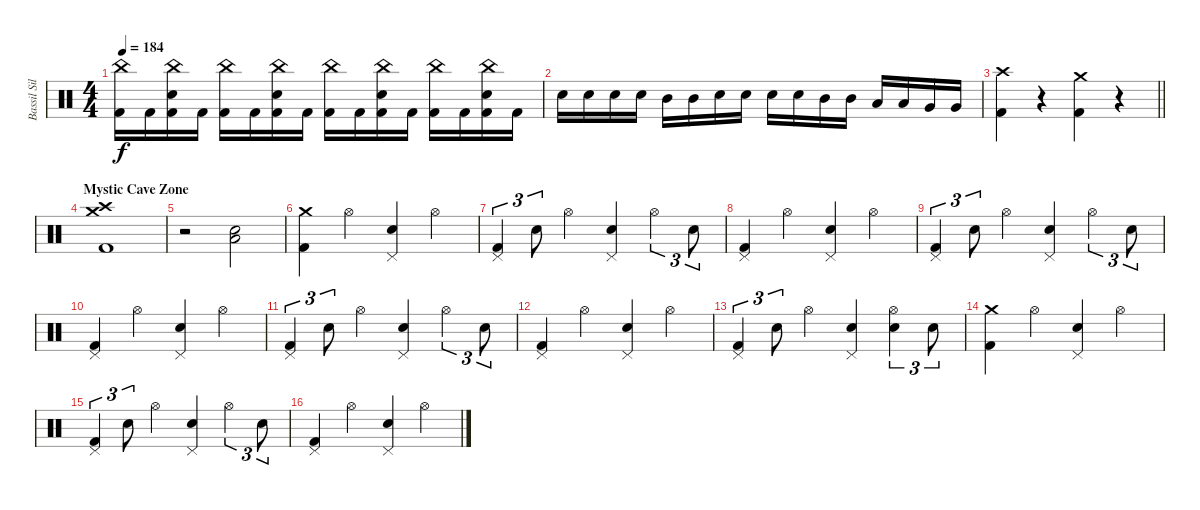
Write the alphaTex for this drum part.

\track ("Bassil Silver-Hajo" "Bassil Sil") {instrument percussion}
\staff {score}
\articulation defaults
\ts (4 4)
\tempo 184
\clef neutral
\ks c
("China (hit)" "Kick (hit) 2").16{dy f} "Kick (hit) 2".16 ("China (hit)" "Snare (hit) 2" "Kick (hit) 2").16 "Kick (hit) 2".16 ("China (hit)" "Kick (hit) 2").16 "Kick (hit) 2".16 ("China (hit)" "Snare (hit) 2" "Kick (hit) 2").16 "Kick (hit) 2".16 ("China (hit)" "Kick (hit) 2").16 "Kick (hit) 2".16 ("China (hit)" "Snare (hit) 2" "Kick (hit) 2").16 "Kick (hit) 2".16 ("China (hit)" "Kick (hit) 2").16 "Kick (hit) 2".16 ("China (hit)" "Snare (hit) 2" "Kick (hit) 2").16 "Kick (hit) 2".16 |
"Snare (hit) 2".16 "Snare (hit) 2".16 "Snare (hit) 2".16 "Snare (hit) 2".16 "Mid Tom (hit)".16 "Mid Tom (hit)".16 "Snare (hit) 2".16 "Snare (hit) 2".16 "Snare (hit) 2".16 "Snare (hit) 2".16 "Mid Tom (hit)".16 "Mid Tom (hit)".16 "Low Tom (hit)".16 "Low Tom (hit)".16 "Very Low Tom (hit)".16 "Very Low Tom (hit)".16 |
\barLineRight lightlight
("Crash high (hit)" "Kick (hit) 2").4 r.4 ("Crash medium (hit)" "Kick (hit) 2").4 r.4 |
\section ("" "Mystic Cave Zone")
("Crash high (hit)" "Crash medium (hit)" "Kick (hit) 2").1 |
r.2 ("Snare (hit) 2" "Low Floor Tom (hit)").2 |
("Crash medium (hit)" "Kick (hit) 2").4 "Hi-Hat (open)".4 ("Pedal Hi-Hat (hit)" "Snare (hit) 2").4 "Hi-Hat (open)".4 |
("Pedal Hi-Hat (hit)" "Kick (hit) 2").4{tu (3 2)} "Snare (hit) 2".8{tu (3 2)} "Hi-Hat (open)".4 ("Pedal Hi-Hat (hit)" "Snare (hit) 2").4 "Hi-Hat (open)".4{tu (3 2)} "Snare (hit) 2".8{tu (3 2)} |
("Pedal Hi-Hat (hit)" "Kick (hit) 2").4 "Hi-Hat (open)".4 ("Pedal Hi-Hat (hit)" "Snare (hit) 2").4 "Hi-Hat (open)".4 |
("Pedal Hi-Hat (hit)" "Kick (hit) 2").4{tu (3 2)} "Snare (hit) 2".8{tu (3 2)} "Hi-Hat (open)".4 ("Pedal Hi-Hat (hit)" "Snare (hit) 2").4 "Hi-Hat (open)".4{tu (3 2)} "Snare (hit) 2".8{tu (3 2)} |
("Pedal Hi-Hat (hit)" "Kick (hit) 2").4 "Hi-Hat (open)".4 ("Pedal Hi-Hat (hit)" "Snare (hit) 2").4 "Hi-Hat (open)".4 |
("Pedal Hi-Hat (hit)" "Kick (hit) 2").4{tu (3 2)} "Snare (hit) 2".8{tu (3 2)} "Hi-Hat (open)".4 ("Pedal Hi-Hat (hit)" "Snare (hit) 2").4 "Hi-Hat (open)".4{tu (3 2)} "Snare (hit) 2".8{tu (3 2)} |
("Pedal Hi-Hat (hit)" "Kick (hit) 2").4 "Hi-Hat (open)".4 ("Pedal Hi-Hat (hit)" "Snare (hit) 2").4 "Hi-Hat (open)".4 |
("Pedal Hi-Hat (hit)" "Kick (hit) 2").4{tu (3 2)} "Snare (hit) 2".8{tu (3 2)} "Hi-Hat (open)".4 ("Pedal Hi-Hat (hit)" "Snare (hit) 2").4 ("Hi-Hat (open)" "Snare (hit) 2").4{tu (3 2)} "Snare (hit) 2".8{tu (3 2)} |
("Crash medium (hit)" "Kick (hit) 2").4 "Hi-Hat (open)".4 ("Pedal Hi-Hat (hit)" "Snare (hit) 2").4 "Hi-Hat (open)".4 |
("Pedal Hi-Hat (hit)" "Kick (hit) 2").4{tu (3 2)} "Snare (hit) 2".8{tu (3 2)} "Hi-Hat (open)".4 ("Pedal Hi-Hat (hit)" "Snare (hit) 2").4 "Hi-Hat (open)".4{tu (3 2)} "Snare (hit) 2".8{tu (3 2)} |
("Pedal Hi-Hat (hit)" "Kick (hit) 2").4 "Hi-Hat (open)".4 ("Pedal Hi-Hat (hit)" "Snare (hit) 2").4 "Hi-Hat (open)".4
